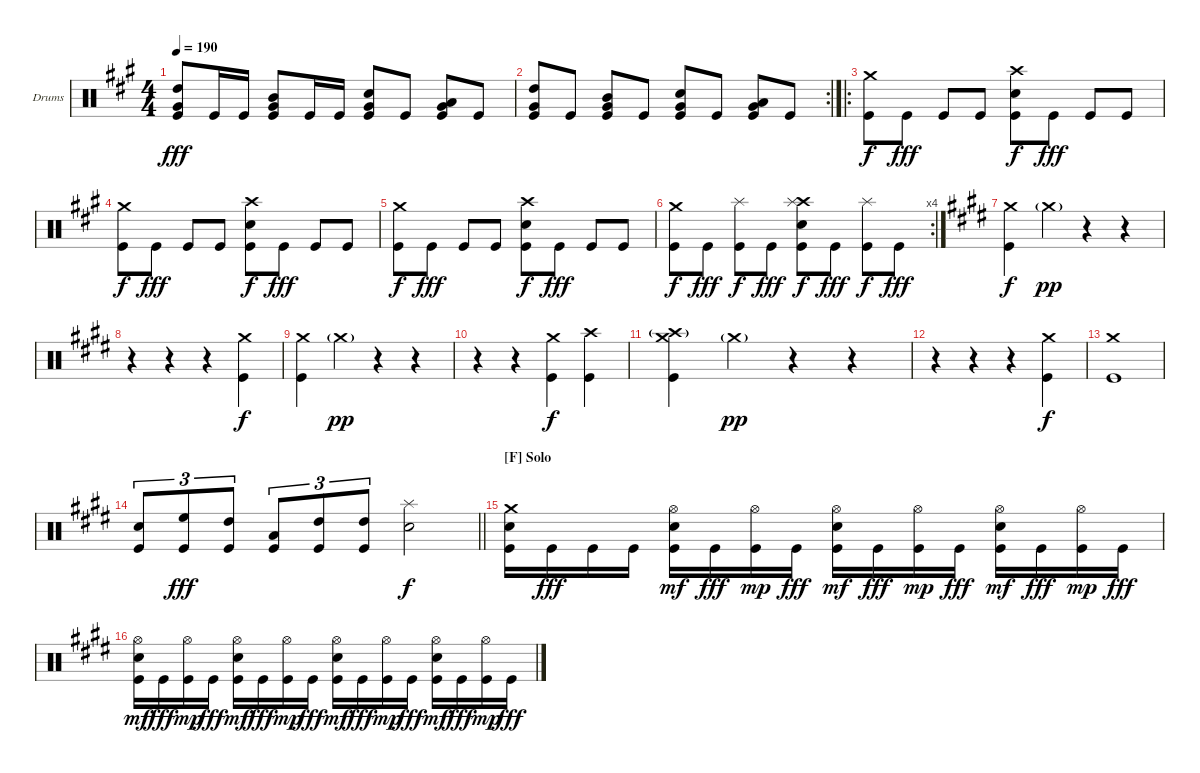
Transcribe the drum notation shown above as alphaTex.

\bracketExtendMode groupsimilarinstruments
\firstSystemTrackNameOrientation horizontal
\otherSystemsTrackNameOrientation horizontal
\track ("Drumkit" "Drums") {instrument percussion}
\staff {score}
\articulation defaults
\ts (4 4)
\tempo 190
\clef neutral
\ks f#minor
("Very Low Tom (hit)" "High Tom (hit)" "Kick (hit)").8{dy fff} "Kick (hit)".16 "Kick (hit)".16 ("Very Low Tom (hit)" "Mid Tom (hit)" "Kick (hit)").8 "Kick (hit)".16 "Kick (hit)".16 ("Very Low Tom (hit)" "Snare (hit) 2" "Kick (hit)").8 "Kick (hit)".8 ("Very Low Tom (hit)" "Low Tom (hit)" "Kick (hit)").8 "Kick (hit)".8 |
\rc 2
("Very Low Tom (hit)" "High Tom (hit)" "Kick (hit)").8 "Kick (hit)".8 ("Very Low Tom (hit)" "Mid Tom (hit)" "Kick (hit)").8 "Kick (hit)".8 ("Very Low Tom (hit)" "Snare (hit) 2" "Kick (hit)").8 "Kick (hit)".8 ("Very Low Tom (hit)" "Low Tom (hit)" "Kick (hit)").8 "Kick (hit)".8 |
\ro
("Crash medium (hit)" "Kick (hit)").8{dy f} "Kick (hit)".8{dy fff} "Kick (hit)".8 "Kick (hit)".8 ("Crash high (hit)" "Snare (hit) 2" "Kick (hit)").8{dy f} "Kick (hit)".8{dy fff} "Kick (hit)".8 "Kick (hit)".8 |
("Crash medium (hit)" "Kick (hit)").8{dy f} "Kick (hit)".8{dy fff} "Kick (hit)".8 "Kick (hit)".8 ("Crash high (hit)" "Snare (hit) 2" "Kick (hit)").8{dy f} "Kick (hit)".8{dy fff} "Kick (hit)".8 "Kick (hit)".8 |
("Crash medium (hit)" "Kick (hit)").8{dy f} "Kick (hit)".8{dy fff} "Kick (hit)".8 "Kick (hit)".8 ("Crash high (hit)" "Snare (hit) 2" "Kick (hit)").8{dy f} "Kick (hit)".8{dy fff} "Kick (hit)".8 "Kick (hit)".8 |
\rc 4
("Crash medium (hit)" "Kick (hit)").8{dy f} "Kick (hit)".8{dy fff} ("Splash (hit)" "Kick (hit)").8{dy f} "Kick (hit)".8{dy fff} ("Crash high (hit)" "Splash (hit)" "Snare (hit) 2" "Kick (hit)").8{dy f} "Kick (hit)".8{dy fff} ("Splash (hit)" "Kick (hit)").8{dy f} "Kick (hit)".8{dy fff} |
\ks c#minor
("Crash medium (hit)" "Kick (hit)").4{dy f} "Crash medium (hit)"{g}.4{dy pp} r.4 r.4 |
r.4 r.4 r.4 ("Crash medium (hit)" "Kick (hit)").4{dy f} |
("Crash medium (hit)" "Kick (hit)").4 "Crash medium (hit)"{g}.4{dy pp} r.4 r.4 |
r.4 r.4 ("Crash medium (hit)" "Kick (hit)").4{dy f} ("Crash high (hit)" "Kick (hit)").4 |
("Crash medium (hit)" "Crash high (hit)"{g} "Kick (hit)").4 "Crash medium (hit)"{g}.4{dy pp} r.4 r.4 |
r.4 r.4 r.4 ("Crash medium (hit)" "Kick (hit)").4{dy f} |
("Crash medium (hit)" "Kick (hit)").1 |
\barLineRight lightlight
("Snare (hit) 2" "Kick (hit)").8{tu (3 2)} ("High Floor Tom (hit)" "Kick (hit)").8{tu (3 2) dy fff} ("High Tom (hit)" "Kick (hit)").8{tu (3 2)} ("Low Tom (hit)" "Kick (hit)").8{tu (3 2)} ("High Tom (hit)" "Kick (hit)").8{tu (3 2)} ("High Tom (hit)" "Kick (hit)").8{tu (3 2)} ("Splash (hit)" "Snare (hit) 2").2{dy f} |
\section ("F" "Solo")
("Crash medium (hit)" "Snare (hit) 2" "Kick (hit)").16 "Kick (hit)".16{dy fff} "Kick (hit)".16 "Kick (hit)".16 ("Hi-Hat (open)" "Snare (hit) 2" "Kick (hit)").16{dy mf} "Kick (hit)".16{dy fff} ("Hi-Hat (open)" "Kick (hit)").16{dy mp} "Kick (hit)".16{dy fff} ("Hi-Hat (open)" "Snare (hit) 2" "Kick (hit)").16{dy mf} "Kick (hit)".16{dy fff} ("Hi-Hat (open)" "Kick (hit)").16{dy mp} "Kick (hit)".16{dy fff} ("Hi-Hat (open)" "Snare (hit) 2" "Kick (hit)").16{dy mf} "Kick (hit)".16{dy fff} ("Hi-Hat (open)" "Kick (hit)").16{dy mp} "Kick (hit)".16{dy fff} |
("Hi-Hat (open)" "Snare (hit) 2" "Kick (hit)").16{dy mf} "Kick (hit)".16{dy fff} ("Hi-Hat (open)" "Kick (hit)").16{dy mp} "Kick (hit)".16{dy fff} ("Hi-Hat (open)" "Snare (hit) 2" "Kick (hit)").16{dy mf} "Kick (hit)".16{dy fff} ("Hi-Hat (open)" "Kick (hit)").16{dy mp} "Kick (hit)".16{dy fff} ("Hi-Hat (open)" "Snare (hit) 2" "Kick (hit)").16{dy mf} "Kick (hit)".16{dy fff} ("Hi-Hat (open)" "Kick (hit)").16{dy mp} "Kick (hit)".16{dy fff} ("Hi-Hat (open)" "Snare (hit) 2" "Kick (hit)").16{dy mf} "Kick (hit)".16{dy fff} ("Hi-Hat (open)" "Kick (hit)").16{dy mp} "Kick (hit)".16{dy fff}
